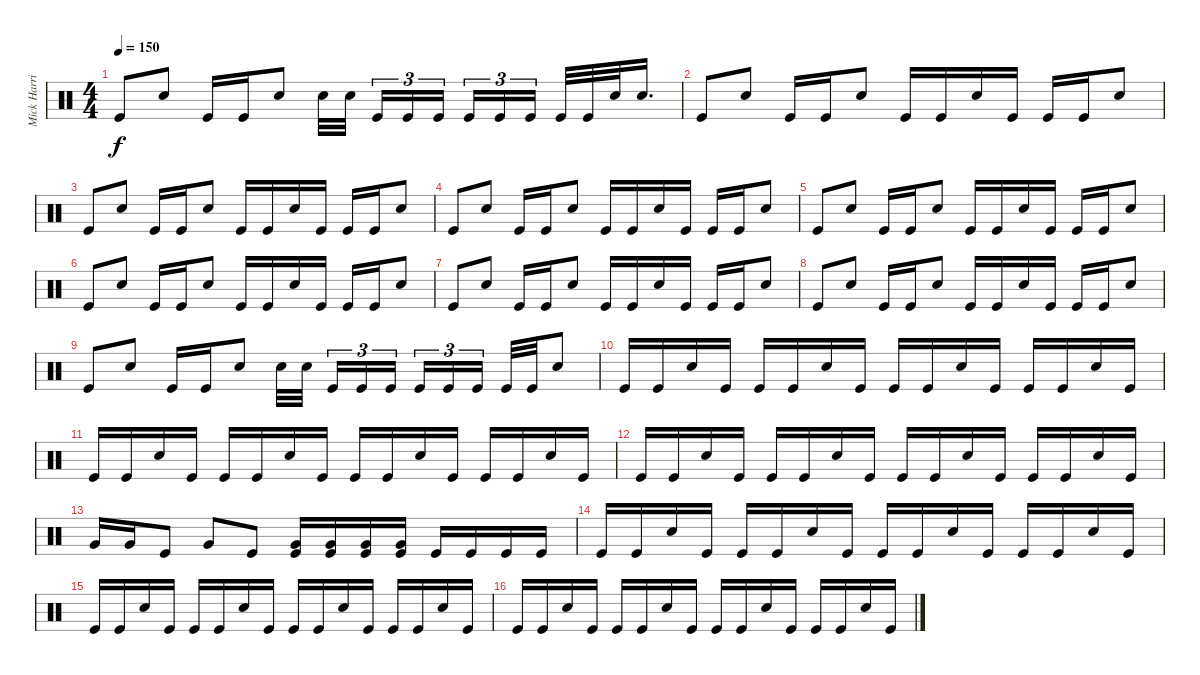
\track ("Mick Harris" "Mick Harri") {instrument percussion}
\staff {score}
\articulation defaults
\ts (4 4)
\tempo 150
\clef neutral
\ks c "Kick (hit)".8{dy f} "Snare (hit) 2".8 "Kick (hit)".16 "Kick (hit)".16 "Snare (hit) 2".8 "Snare (hit) 2".32 "Snare (hit) 2".32{beam splitsecondary} "Kick (hit)".16{tu (3 2)} "Kick (hit)".16{tu (3 2)} "Kick (hit)".16{tu (3 2) beam splitsecondary} "Kick (hit)".16{tu (3 2)} "Kick (hit)".16{tu (3 2)} "Kick (hit)".16{tu (3 2) beam splitsecondary} "Kick (hit)".32 "Kick (hit)".32 "Snare (hit) 2".32 "Snare (hit) 2".16{d}
|
"Kick (hit)".8 "Snare (hit) 2".8 "Kick (hit)".16 "Kick (hit)".16 "Snare (hit) 2".8 "Kick (hit)".16 "Kick (hit)".16 "Snare (hit) 2".16 "Kick (hit)".16 "Kick (hit)".16 "Kick (hit)".16 "Snare (hit) 2".8 |
"Kick (hit)".8 "Snare (hit) 2".8 "Kick (hit)".16 "Kick (hit)".16 "Snare (hit) 2".8 "Kick (hit)".16 "Kick (hit)".16 "Snare (hit) 2".16 "Kick (hit)".16 "Kick (hit)".16 "Kick (hit)".16 "Snare (hit) 2".8 |
"Kick (hit)".8 "Snare (hit) 2".8 "Kick (hit)".16 "Kick (hit)".16 "Snare (hit) 2".8 "Kick (hit)".16 "Kick (hit)".16 "Snare (hit) 2".16 "Kick (hit)".16 "Kick (hit)".16 "Kick (hit)".16 "Snare (hit) 2".8 |
"Kick (hit)".8 "Snare (hit) 2".8 "Kick (hit)".16 "Kick (hit)".16 "Snare (hit) 2".8 "Kick (hit)".16 "Kick (hit)".16 "Snare (hit) 2".16 "Kick (hit)".16 "Kick (hit)".16 "Kick (hit)".16 "Snare (hit) 2".8 |
"Kick (hit)".8 "Snare (hit) 2".8 "Kick (hit)".16 "Kick (hit)".16 "Snare (hit) 2".8 "Kick (hit)".16 "Kick (hit)".16 "Snare (hit) 2".16 "Kick (hit)".16 "Kick (hit)".16 "Kick (hit)".16 "Snare (hit) 2".8 |
"Kick (hit)".8 "Snare (hit) 2".8 "Kick (hit)".16 "Kick (hit)".16 "Snare (hit) 2".8 "Kick (hit)".16 "Kick (hit)".16 "Snare (hit) 2".16 "Kick (hit)".16 "Kick (hit)".16 "Kick (hit)".16 "Snare (hit) 2".8 |
"Kick (hit)".8 "Snare (hit) 2".8 "Kick (hit)".16 "Kick (hit)".16 "Snare (hit) 2".8 "Kick (hit)".16 "Kick (hit)".16 "Snare (hit) 2".16 "Kick (hit)".16 "Kick (hit)".16 "Kick (hit)".16 "Snare (hit) 2".8 |
"Kick (hit)".8 "Snare (hit) 2".8 "Kick (hit)".16 "Kick (hit)".16 "Snare (hit) 2".8 "Snare (hit) 2".32 "Snare (hit) 2".32{beam splitsecondary} "Kick (hit)".16{tu (3 2)} "Kick (hit)".16{tu (3 2)} "Kick (hit)".16{tu (3 2) beam splitsecondary} "Kick (hit)".16{tu (3 2)} "Kick (hit)".16{tu (3 2)} "Kick (hit)".16{tu (3 2) beam splitsecondary} "Kick (hit)".32 "Kick (hit)".32 "Snare (hit) 2".8 |
"Kick (hit)".16 "Kick (hit)".16 "Snare (hit) 2".16 "Kick (hit)".16 "Kick (hit)".16 "Kick (hit)".16 "Snare (hit) 2".16 "Kick (hit)".16 "Kick (hit)".16 "Kick (hit)".16 "Snare (hit) 2".16 "Kick (hit)".16 "Kick (hit)".16 "Kick (hit)".16 "Snare (hit) 2".16 "Kick (hit)".16 |
"Kick (hit)".16 "Kick (hit)".16 "Snare (hit) 2".16 "Kick (hit)".16 "Kick (hit)".16 "Kick (hit)".16 "Snare (hit) 2".16 "Kick (hit)".16 "Kick (hit)".16 "Kick (hit)".16 "Snare (hit) 2".16 "Kick (hit)".16 "Kick (hit)".16 "Kick (hit)".16 "Snare (hit) 2".16 "Kick (hit)".16 |
"Kick (hit)".16 "Kick (hit)".16 "Snare (hit) 2".16 "Kick (hit)".16 "Kick (hit)".16 "Kick (hit)".16 "Snare (hit) 2".16 "Kick (hit)".16 "Kick (hit)".16 "Kick (hit)".16 "Snare (hit) 2".16 "Kick (hit)".16 "Kick (hit)".16 "Kick (hit)".16 "Snare (hit) 2".16 "Kick (hit)".16 |
"Very Low Tom (hit)".16 "Very Low Tom (hit)".16 "Kick (hit)".8 "Very Low Tom (hit)".8 "Kick (hit)".8 ("Kick (hit)" "Very Low Tom (hit)").16 ("Kick (hit)" "Very Low Tom (hit)").16 ("Kick (hit)" "Very Low Tom (hit)").16 ("Kick (hit)" "Very Low Tom (hit)").16 "Kick (hit)".16 "Kick (hit)".16 "Kick (hit)".16 "Kick (hit)".16 |
"Kick (hit)".16 "Kick (hit)".16 "Snare (hit) 2".16 "Kick (hit)".16 "Kick (hit)".16 "Kick (hit)".16 "Snare (hit) 2".16 "Kick (hit)".16 "Kick (hit)".16 "Kick (hit)".16 "Snare (hit) 2".16 "Kick (hit)".16 "Kick (hit)".16 "Kick (hit)".16 "Snare (hit) 2".16 "Kick (hit)".16 |
"Kick (hit)".16 "Kick (hit)".16 "Snare (hit) 2".16 "Kick (hit)".16 "Kick (hit)".16 "Kick (hit)".16 "Snare (hit) 2".16 "Kick (hit)".16 "Kick (hit)".16 "Kick (hit)".16 "Snare (hit) 2".16 "Kick (hit)".16 "Kick (hit)".16 "Kick (hit)".16 "Snare (hit) 2".16 "Kick (hit)".16 |
"Kick (hit)".16 "Kick (hit)".16 "Snare (hit) 2".16 "Kick (hit)".16 "Kick (hit)".16 "Kick (hit)".16 "Snare (hit) 2".16 "Kick (hit)".16 "Kick (hit)".16 "Kick (hit)".16 "Snare (hit) 2".16 "Kick (hit)".16 "Kick (hit)".16 "Kick (hit)".16 "Snare (hit) 2".16 "Kick (hit)".16
